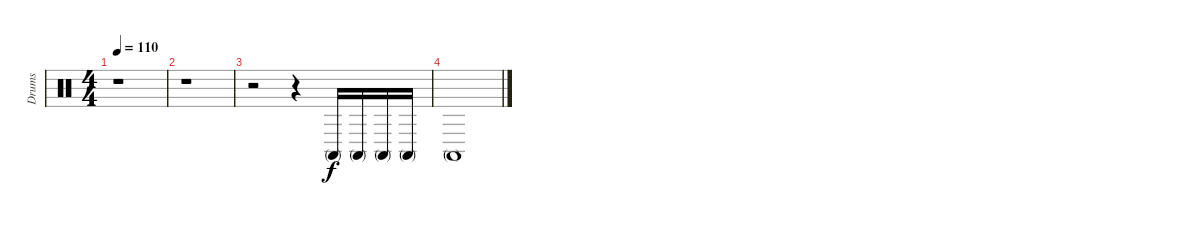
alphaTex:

\track ("Drums" "Drums") {instrument percussion}
\staff {score}
\articulation defaults
\ts (4 4)
\tempo 110
\clef neutral
\ks c
r.1{dy f} |
r.1 |
r.2 r.4 "Conga high (mute)".16 "Conga high (mute)".16 "Conga high (mute)".16 "Conga high (mute)".16 |
"Conga high (mute)".1
